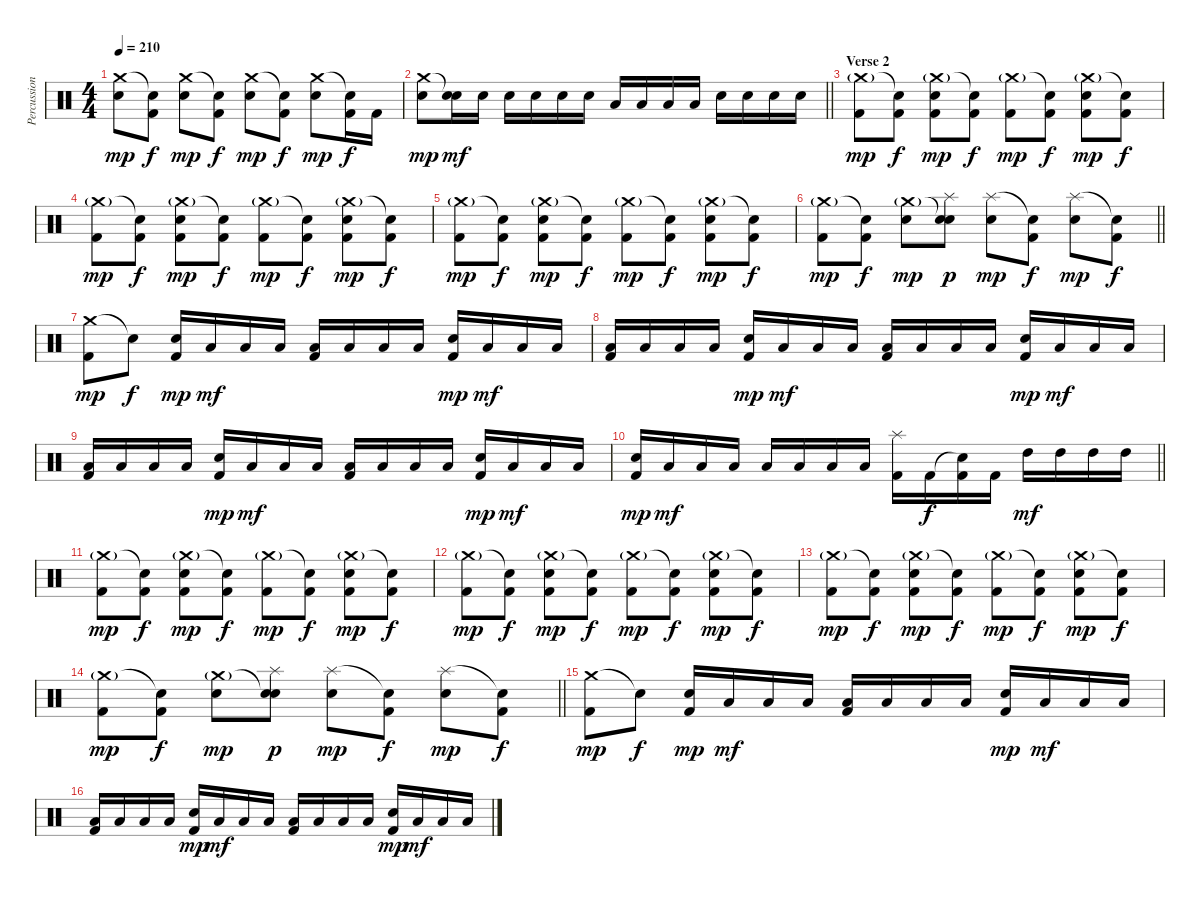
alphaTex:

\track ("Percussion" "Percussion") {instrument percussion}
\staff {score}
\articulation defaults
\ts (4 4)
\tempo 210
\clef neutral
\ks c
("Crash medium (hit)" "Electric Snare (hit)").8{dy mp} ("Snare (hit)"{t} "Kick (hit) 2").8{dy f} ("Crash medium (hit)" "Electric Snare (hit)").8{dy mp} ("Snare (hit)"{t} "Kick (hit) 2").8{dy f} ("Crash medium (hit)" "Electric Snare (hit)").8{dy mp} ("Snare (hit)"{t} "Kick (hit) 2").8{dy f} ("Crash medium (hit)" "Electric Snare (hit)").8{dy mp} ("Snare (hit)"{t} "Kick (hit) 2").16{dy f} "Kick (hit) 2".16 |
\barLineRight lightlight
("Crash medium (hit)" "Electric Snare (hit)").8{dy mp} ("Snare (hit)"{t} "Electric Snare (hit)").16{dy mf} "Electric Snare (hit)".16 "Electric Snare (hit)".16 "Electric Snare (hit)".16 "Electric Snare (hit)".16 "Electric Snare (hit)".16 "Low Tom (hit)".16 "Low Tom (hit)".16 "Low Tom (hit)".16 "Low Tom (hit)".16 "Electric Snare (hit)".16 "Electric Snare (hit)".16 "Electric Snare (hit)".16 "Electric Snare (hit)".16 |
\section ("" "Verse 2")
("Crash medium (hit)"{g} "Kick (hit) 2").8{dy mp} ("Snare (hit)"{t} "Kick (hit) 2").8{dy f} ("Crash medium (hit)"{g} "Electric Snare (hit)" "Kick (hit) 2").8{dy mp} ("Snare (hit)"{t} "Kick (hit) 2").8{dy f} ("Crash medium (hit)"{g} "Kick (hit) 2").8{dy mp} ("Snare (hit)"{t} "Kick (hit) 2").8{dy f} ("Crash medium (hit)"{g} "Electric Snare (hit)" "Kick (hit) 2").8{dy mp} ("Snare (hit)"{t} "Kick (hit) 2").8{dy f} |
("Crash medium (hit)"{g} "Kick (hit) 2").8{dy mp} ("Snare (hit)"{t} "Kick (hit) 2").8{dy f} ("Crash medium (hit)"{g} "Electric Snare (hit)" "Kick (hit) 2").8{dy mp} ("Snare (hit)"{t} "Kick (hit) 2").8{dy f} ("Crash medium (hit)"{g} "Kick (hit) 2").8{dy mp} ("Snare (hit)"{t} "Kick (hit) 2").8{dy f} ("Crash medium (hit)"{g} "Electric Snare (hit)" "Kick (hit) 2").8{dy mp} ("Snare (hit)"{t} "Kick (hit) 2").8{dy f} |
("Crash medium (hit)"{g} "Kick (hit) 2").8{dy mp} ("Snare (hit)"{t} "Kick (hit) 2").8{dy f} ("Crash medium (hit)"{g} "Electric Snare (hit)" "Kick (hit) 2").8{dy mp} ("Snare (hit)"{t} "Kick (hit) 2").8{dy f} ("Crash medium (hit)"{g} "Kick (hit) 2").8{dy mp} ("Snare (hit)"{t} "Kick (hit) 2").8{dy f} ("Crash medium (hit)"{g} "Electric Snare (hit)" "Kick (hit) 2").8{dy mp} ("Snare (hit)"{t} "Kick (hit) 2").8{dy f} |
\barLineRight lightlight
("Crash medium (hit)"{g} "Kick (hit) 2").8{dy mp} ("Snare (hit)"{t} "Kick (hit) 2").8{dy f} ("Crash medium (hit)"{g} "Electric Snare (hit)").8{dy mp} ("Snare (hit)"{t} "Splash (hit)" "Electric Snare (hit)").8{dy p} ("Splash (hit)" "Electric Snare (hit)").8{dy mp} ("Snare (hit)"{t} "Kick (hit) 2").8{dy f} ("Splash (hit)" "Electric Snare (hit)").8{dy mp} ("Snare (hit)"{t} "Kick (hit) 2").8{dy f} |
("Crash medium (hit)" "Kick (hit) 2").8{dy mp} "Snare (hit)"{t}.8{dy f} ("Electric Snare (hit)" "Kick (hit) 2").16{dy mp} "Low Tom (hit)".16{dy mf} "Low Tom (hit)".16 "Low Tom (hit)".16 ("Low Tom (hit)" "Kick (hit) 2").16 "Low Tom (hit)".16 "Low Tom (hit)".16 "Low Tom (hit)".16 ("Electric Snare (hit)" "Kick (hit) 2").16{dy mp} "Low Tom (hit)".16{dy mf} "Low Tom (hit)".16 "Low Tom (hit)".16 |
("Low Tom (hit)" "Kick (hit) 2").16 "Low Tom (hit)".16 "Low Tom (hit)".16 "Low Tom (hit)".16 ("Electric Snare (hit)" "Kick (hit) 2").16{dy mp} "Low Tom (hit)".16{dy mf} "Low Tom (hit)".16 "Low Tom (hit)".16 ("Low Tom (hit)" "Kick (hit) 2").16 "Low Tom (hit)".16 "Low Tom (hit)".16 "Low Tom (hit)".16 ("Electric Snare (hit)" "Kick (hit) 2").16{dy mp} "Low Tom (hit)".16{dy mf} "Low Tom (hit)".16 "Low Tom (hit)".16 |
("Low Tom (hit)" "Kick (hit) 2").16 "Low Tom (hit)".16 "Low Tom (hit)".16 "Low Tom (hit)".16 ("Electric Snare (hit)" "Kick (hit) 2").16{dy mp} "Low Tom (hit)".16{dy mf} "Low Tom (hit)".16 "Low Tom (hit)".16 ("Low Tom (hit)" "Kick (hit) 2").16 "Low Tom (hit)".16 "Low Tom (hit)".16 "Low Tom (hit)".16 ("Electric Snare (hit)" "Kick (hit) 2").16{dy mp} "Low Tom (hit)".16{dy mf} "Low Tom (hit)".16 "Low Tom (hit)".16 |
\barLineRight lightlight
("Electric Snare (hit)" "Kick (hit) 2").16{dy mp} "Low Tom (hit)".16{dy mf} "Low Tom (hit)".16 "Low Tom (hit)".16 "Low Tom (hit)".16 "Low Tom (hit)".16 "Low Tom (hit)".16 "Low Tom (hit)".16 ("Splash (hit)" "Kick (hit) 2").16 "Kick (hit) 2".16{dy f} ("Snare (hit)"{t} "Kick (hit) 2").16 "Kick (hit) 2".16 "High Tom (hit)".16{dy mf} "High Tom (hit)".16 "High Tom (hit)".16 "High Tom (hit)".16 |
("Crash medium (hit)"{g} "Kick (hit) 2").8{dy mp} ("Snare (hit)"{t} "Kick (hit) 2").8{dy f} ("Crash medium (hit)"{g} "Electric Snare (hit)" "Kick (hit) 2").8{dy mp} ("Snare (hit)"{t} "Kick (hit) 2").8{dy f} ("Crash medium (hit)"{g} "Kick (hit) 2").8{dy mp} ("Snare (hit)"{t} "Kick (hit) 2").8{dy f} ("Crash medium (hit)"{g} "Electric Snare (hit)" "Kick (hit) 2").8{dy mp} ("Snare (hit)"{t} "Kick (hit) 2").8{dy f} |
("Crash medium (hit)"{g} "Kick (hit) 2").8{dy mp} ("Snare (hit)"{t} "Kick (hit) 2").8{dy f} ("Crash medium (hit)"{g} "Electric Snare (hit)" "Kick (hit) 2").8{dy mp} ("Snare (hit)"{t} "Kick (hit) 2").8{dy f} ("Crash medium (hit)"{g} "Kick (hit) 2").8{dy mp} ("Snare (hit)"{t} "Kick (hit) 2").8{dy f} ("Crash medium (hit)"{g} "Electric Snare (hit)" "Kick (hit) 2").8{dy mp} ("Snare (hit)"{t} "Kick (hit) 2").8{dy f} |
("Crash medium (hit)"{g} "Kick (hit) 2").8{dy mp} ("Snare (hit)"{t} "Kick (hit) 2").8{dy f} ("Crash medium (hit)"{g} "Electric Snare (hit)" "Kick (hit) 2").8{dy mp} ("Snare (hit)"{t} "Kick (hit) 2").8{dy f} ("Crash medium (hit)"{g} "Kick (hit) 2").8{dy mp} ("Snare (hit)"{t} "Kick (hit) 2").8{dy f} ("Crash medium (hit)"{g} "Electric Snare (hit)" "Kick (hit) 2").8{dy mp} ("Snare (hit)"{t} "Kick (hit) 2").8{dy f} |
\barLineRight lightlight
("Crash medium (hit)"{g} "Kick (hit) 2").8{dy mp} ("Snare (hit)"{t} "Kick (hit) 2").8{dy f} ("Crash medium (hit)"{g} "Electric Snare (hit)").8{dy mp} ("Snare (hit)"{t} "Splash (hit)" "Electric Snare (hit)").8{dy p} ("Splash (hit)" "Electric Snare (hit)").8{dy mp} ("Snare (hit)"{t} "Kick (hit) 2").8{dy f} ("Splash (hit)" "Electric Snare (hit)").8{dy mp} ("Snare (hit)"{t} "Kick (hit) 2").8{dy f} |
("Crash medium (hit)" "Kick (hit) 2").8{dy mp} "Snare (hit)"{t}.8{dy f} ("Electric Snare (hit)" "Kick (hit) 2").16{dy mp} "Low Tom (hit)".16{dy mf} "Low Tom (hit)".16 "Low Tom (hit)".16 ("Low Tom (hit)" "Kick (hit) 2").16 "Low Tom (hit)".16 "Low Tom (hit)".16 "Low Tom (hit)".16 ("Electric Snare (hit)" "Kick (hit) 2").16{dy mp} "Low Tom (hit)".16{dy mf} "Low Tom (hit)".16 "Low Tom (hit)".16 |
("Low Tom (hit)" "Kick (hit) 2").16 "Low Tom (hit)".16 "Low Tom (hit)".16 "Low Tom (hit)".16 ("Electric Snare (hit)" "Kick (hit) 2").16{dy mp} "Low Tom (hit)".16{dy mf} "Low Tom (hit)".16 "Low Tom (hit)".16 ("Low Tom (hit)" "Kick (hit) 2").16 "Low Tom (hit)".16 "Low Tom (hit)".16 "Low Tom (hit)".16 ("Electric Snare (hit)" "Kick (hit) 2").16{dy mp} "Low Tom (hit)".16{dy mf} "Low Tom (hit)".16 "Low Tom (hit)".16
